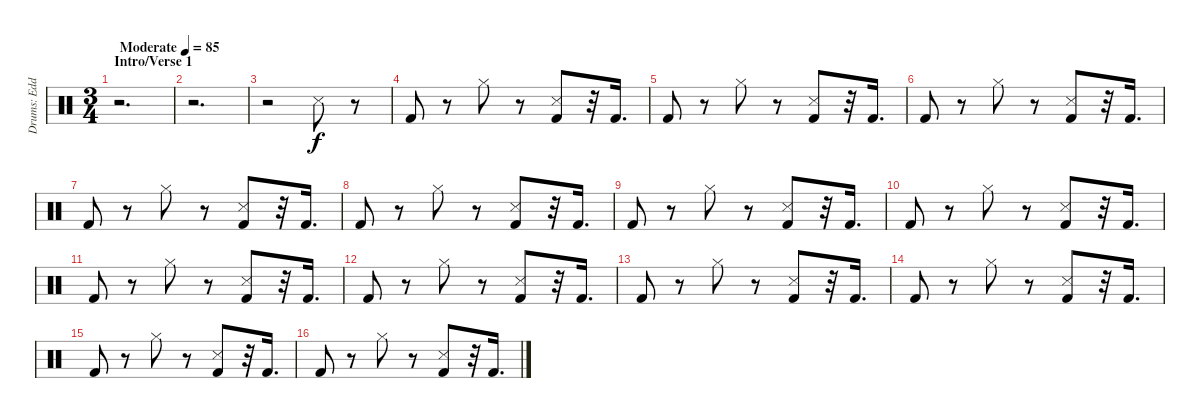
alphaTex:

\track ("Drums: Eddie Bayers" "Drums: Edd") {instrument percussion}
\staff {score}
\articulation defaults
\ts (3 4)
\section ("" "Intro/Verse 1")
\tempo (85 "Moderate")
\clef neutral
\ks c
r.2{d dy f} |
r.2{d} |
r.2 "Snare (side stick) 3".8 r.8 |
"Kick (hit) 2".8 r.8 "Hi-Hat (closed)".8 r.8 ("Snare (side stick) 3" "Kick (hit) 2").8 r.32 "Kick (hit) 2".16{d} |
"Kick (hit) 2".8 r.8 "Hi-Hat (closed)".8 r.8 ("Snare (side stick) 3" "Kick (hit) 2").8 r.32 "Kick (hit) 2".16{d} |
"Kick (hit) 2".8 r.8 "Hi-Hat (closed)".8 r.8 ("Snare (side stick) 3" "Kick (hit) 2").8 r.32 "Kick (hit) 2".16{d} |
"Kick (hit) 2".8 r.8 "Hi-Hat (closed)".8 r.8 ("Snare (side stick) 3" "Kick (hit) 2").8 r.32 "Kick (hit) 2".16{d} |
"Kick (hit) 2".8 r.8 "Hi-Hat (closed)".8 r.8 ("Snare (side stick) 3" "Kick (hit) 2").8 r.32 "Kick (hit) 2".16{d} |
"Kick (hit) 2".8 r.8 "Hi-Hat (closed)".8 r.8 ("Snare (side stick) 3" "Kick (hit) 2").8 r.32 "Kick (hit) 2".16{d} |
"Kick (hit) 2".8 r.8 "Hi-Hat (closed)".8 r.8 ("Snare (side stick) 3" "Kick (hit) 2").8 r.32 "Kick (hit) 2".16{d} |
"Kick (hit) 2".8 r.8 "Hi-Hat (closed)".8 r.8 ("Snare (side stick) 3" "Kick (hit) 2").8 r.32 "Kick (hit) 2".16{d} |
"Kick (hit) 2".8 r.8 "Hi-Hat (closed)".8 r.8 ("Snare (side stick) 3" "Kick (hit) 2").8 r.32 "Kick (hit) 2".16{d} |
"Kick (hit) 2".8 r.8 "Hi-Hat (closed)".8 r.8 ("Snare (side stick) 3" "Kick (hit) 2").8 r.32 "Kick (hit) 2".16{d} |
"Kick (hit) 2".8 r.8 "Hi-Hat (closed)".8 r.8 ("Snare (side stick) 3" "Kick (hit) 2").8 r.32 "Kick (hit) 2".16{d} |
"Kick (hit) 2".8 r.8 "Hi-Hat (closed)".8 r.8 ("Snare (side stick) 3" "Kick (hit) 2").8 r.32 "Kick (hit) 2".16{d} |
"Kick (hit) 2".8 r.8 "Hi-Hat (closed)".8 r.8 ("Snare (side stick) 3" "Kick (hit) 2").8 r.32 "Kick (hit) 2".16{d}
